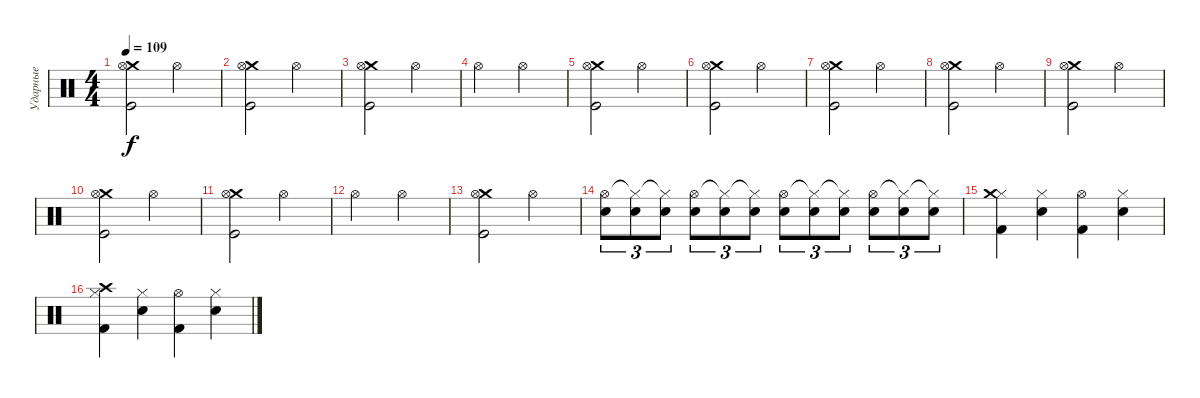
\track ("Ударные" "Ударные") {instrument percussion}
\staff {score}
\articulation defaults
\ts (4 4)
\tempo 109
\clef neutral
\ks c
("Crash medium (hit)" "Hi-Hat (open)" "Kick (hit)").2{dy f} "Hi-Hat (open)".2 |
("Crash medium (hit)" "Hi-Hat (open)" "Kick (hit)").2 "Hi-Hat (open)".2 |
("Crash medium (hit)" "Hi-Hat (open)" "Kick (hit)").2 "Hi-Hat (open)".2 |
"Hi-Hat (open)".2 "Hi-Hat (open)".2 |
("Crash medium (hit)" "Hi-Hat (open)" "Kick (hit)").2 "Hi-Hat (open)".2 |
("Crash medium (hit)" "Hi-Hat (open)" "Kick (hit)").2 "Hi-Hat (open)".2 |
("Crash medium (hit)" "Hi-Hat (open)" "Kick (hit)").2 "Hi-Hat (open)".2 |
("Crash medium (hit)" "Hi-Hat (open)" "Kick (hit)").2 "Hi-Hat (open)".2 |
("Crash medium (hit)" "Hi-Hat (open)" "Kick (hit)").2 "Hi-Hat (open)".2 |
("Crash medium (hit)" "Hi-Hat (open)" "Kick (hit)").2 "Hi-Hat (open)".2 |
("Crash medium (hit)" "Hi-Hat (open)" "Kick (hit)").2 "Hi-Hat (open)".2 |
"Hi-Hat (open)".2 "Hi-Hat (open)".2 |
("Crash medium (hit)" "Hi-Hat (open)" "Kick (hit)").2 "Hi-Hat (open)".2 |
("Snare (hit) 2" "Hi-Hat (open)").8{tu (3 2)} ("Snare (hit) 2" "Hi-Hat (closed)"{t}).8{tu (3 2)} ("Snare (hit) 2" "Hi-Hat (closed)"{t}).8{tu (3 2)} ("Snare (hit) 2" "Hi-Hat (open)").8{tu (3 2)} ("Snare (hit) 2" "Hi-Hat (closed)"{t}).8{tu (3 2)} ("Snare (hit) 2" "Hi-Hat (closed)"{t}).8{tu (3 2)} ("Snare (hit) 2" "Hi-Hat (open)").8{tu (3 2)} ("Snare (hit) 2" "Hi-Hat (closed)"{t}).8{tu (3 2)} ("Snare (hit) 2" "Hi-Hat (closed)"{t}).8{tu (3 2)} ("Snare (hit) 2" "Hi-Hat (open)").8{tu (3 2)} ("Snare (hit) 2" "Hi-Hat (closed)"{t}).8{tu (3 2)} ("Snare (hit) 2" "Hi-Hat (closed)"{t}).8{tu (3 2)} |
("Hi-Hat (closed)" "Crash medium (hit)" "Kick (hit) 2").4 ("Hi-Hat (closed)" "Snare (hit) 2").4 ("Hi-Hat (open)" "Kick (hit) 2").4 ("Hi-Hat (closed)" "Snare (hit) 2").4 |
("Hi-Hat (closed)" "Kick (hit) 2" "Crash high (hit)").4 ("Hi-Hat (closed)" "Snare (hit) 2").4 ("Hi-Hat (open)" "Kick (hit) 2").4 ("Hi-Hat (closed)" "Snare (hit) 2").4
